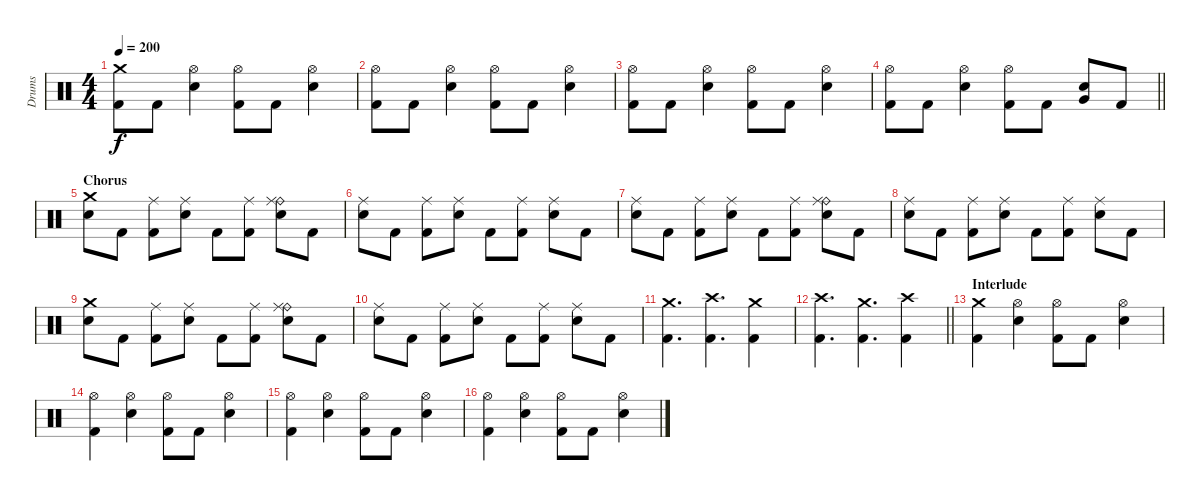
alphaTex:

\track ("Drums" "Drums") {instrument percussion}
\staff {score}
\articulation defaults
\ts (4 4)
\tempo 200
\clef neutral
\ks c
("Crash medium (hit)" "Kick (hit) 2").8{dy f} "Kick (hit) 2".8 ("Hi-Hat (open)" "Electric Snare (hit)").4 ("Hi-Hat (open)" "Kick (hit) 2").8 "Kick (hit) 2".8 ("Hi-Hat (open)" "Electric Snare (hit)").4 |
("Hi-Hat (open)" "Kick (hit) 2").8 "Kick (hit) 2".8 ("Hi-Hat (open)" "Electric Snare (hit)").4 ("Hi-Hat (open)" "Kick (hit) 2").8 "Kick (hit) 2".8 ("Hi-Hat (open)" "Electric Snare (hit)").4 |
("Hi-Hat (open)" "Kick (hit) 2").8 "Kick (hit) 2".8 ("Hi-Hat (open)" "Electric Snare (hit)").4 ("Hi-Hat (open)" "Kick (hit) 2").8 "Kick (hit) 2".8 ("Hi-Hat (open)" "Electric Snare (hit)").4 |
\barLineRight lightlight
("Hi-Hat (open)" "Kick (hit) 2").8 "Kick (hit) 2".8 ("Hi-Hat (open)" "Electric Snare (hit)").4 ("Hi-Hat (open)" "Kick (hit) 2").8 "Kick (hit) 2".8 ("Very Low Tom (hit)" "Electric Snare (hit)").8 "Kick (hit) 2".8 |
\section ("" "Chorus")
("Crash medium (hit)" "Electric Snare (hit)").8 "Kick (hit) 2".8 ("Ride (middle)" "Kick (hit) 2").8 ("Ride (middle)" "Electric Snare (hit)").8 "Kick (hit) 2".8 ("Ride (middle)" "Kick (hit) 2").8 ("Ride (bell)" "Ride (middle)" "Electric Snare (hit)").8 "Kick (hit) 2".8 |
("Ride (middle)" "Electric Snare (hit)").8 "Kick (hit) 2".8 ("Ride (middle)" "Kick (hit) 2").8 ("Ride (middle)" "Electric Snare (hit)").8 "Kick (hit) 2".8 ("Ride (middle)" "Kick (hit) 2").8 ("Ride (middle)" "Electric Snare (hit)").8 "Kick (hit) 2".8 |
("Ride (middle)" "Electric Snare (hit)").8 "Kick (hit) 2".8 ("Ride (middle)" "Kick (hit) 2").8 ("Ride (middle)" "Electric Snare (hit)").8 "Kick (hit) 2".8 ("Ride (middle)" "Kick (hit) 2").8 ("Ride (bell)" "Ride (middle)" "Electric Snare (hit)").8 "Kick (hit) 2".8 |
("Ride (middle)" "Electric Snare (hit)").8 "Kick (hit) 2".8 ("Ride (middle)" "Kick (hit) 2").8 ("Ride (middle)" "Electric Snare (hit)").8 "Kick (hit) 2".8 ("Ride (middle)" "Kick (hit) 2").8 ("Ride (middle)" "Electric Snare (hit)").8 "Kick (hit) 2".8 |
("Crash medium (hit)" "Electric Snare (hit)").8 "Kick (hit) 2".8 ("Ride (middle)" "Kick (hit) 2").8 ("Ride (middle)" "Electric Snare (hit)").8 "Kick (hit) 2".8 ("Ride (middle)" "Kick (hit) 2").8 ("Ride (bell)" "Ride (middle)" "Electric Snare (hit)").8 "Kick (hit) 2".8 |
("Ride (middle)" "Electric Snare (hit)").8 "Kick (hit) 2".8 ("Ride (middle)" "Kick (hit) 2").8 ("Ride (middle)" "Electric Snare (hit)").8 "Kick (hit) 2".8 ("Ride (middle)" "Kick (hit) 2").8 ("Ride (middle)" "Electric Snare (hit)").8 "Kick (hit) 2".8 |
("Crash medium (hit)" "Kick (hit) 2").4{d} ("Crash high (hit)" "Kick (hit) 2").4{d} ("Crash medium (hit)" "Kick (hit) 2").4 |
\barLineRight lightlight
("Crash high (hit)" "Kick (hit) 2").4{d} ("Crash medium (hit)" "Kick (hit) 2").4{d} ("Crash high (hit)" "Kick (hit) 2").4 |
\section ("" "Interlude")
("Crash medium (hit)" "Kick (hit) 2").4 ("Hi-Hat (open)" "Electric Snare (hit)").4 ("Hi-Hat (open)" "Kick (hit) 2").8 "Kick (hit) 2".8 ("Hi-Hat (open)" "Electric Snare (hit)").4 |
("Hi-Hat (open)" "Kick (hit) 2").4 ("Hi-Hat (open)" "Electric Snare (hit)").4 ("Hi-Hat (open)" "Kick (hit) 2").8 "Kick (hit) 2".8 ("Hi-Hat (open)" "Electric Snare (hit)").4 |
("Hi-Hat (open)" "Kick (hit) 2").4 ("Hi-Hat (open)" "Electric Snare (hit)").4 ("Hi-Hat (open)" "Kick (hit) 2").8 "Kick (hit) 2".8 ("Hi-Hat (open)" "Electric Snare (hit)").4 |
("Hi-Hat (open)" "Kick (hit) 2").4 ("Hi-Hat (open)" "Electric Snare (hit)").4 ("Hi-Hat (open)" "Kick (hit) 2").8 "Kick (hit) 2".8 ("Hi-Hat (open)" "Electric Snare (hit)").4
